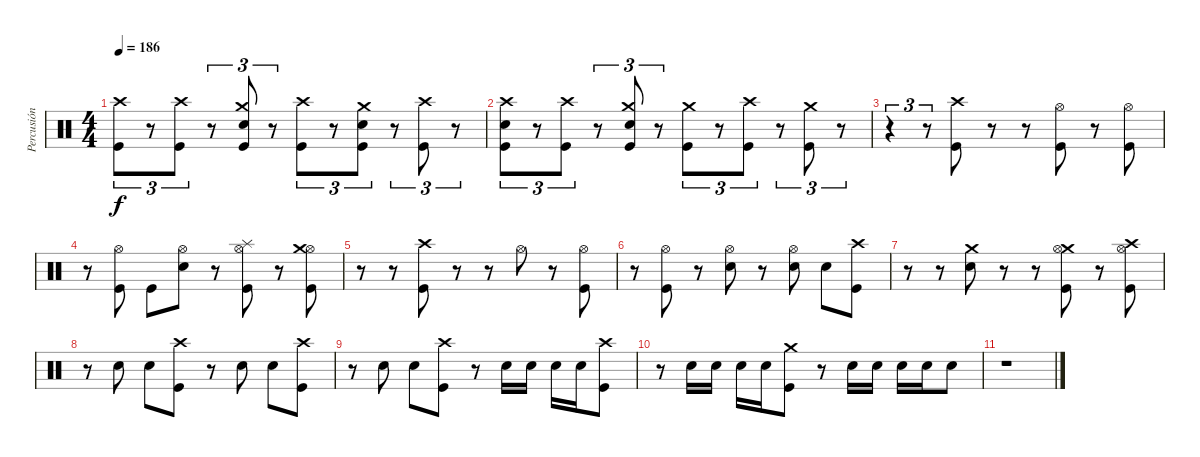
\track ("Percusión" "Percusión") {instrument percussion}
\staff {score}
\articulation defaults
\ts (4 4)
\tempo 186
\clef neutral
\ks c
("Crash high (hit)" "Kick (hit)").8{tu (3 2) dy f} r.8{tu (3 2)} ("Crash high (hit)" "Kick (hit)").8{tu (3 2)} r.8{tu (3 2)} ("Crash medium (hit)" "Snare (hit) 2" "Kick (hit)").8{tu (3 2)} r.8{tu (3 2)} ("Crash high (hit)" "Kick (hit)").8{tu (3 2)} r.8{tu (3 2)} ("Crash medium (hit)" "Snare (hit) 2" "Kick (hit)").8{tu (3 2)} r.8{tu (3 2)} ("Crash high (hit)" "Kick (hit)").8{tu (3 2)} r.8{tu (3 2)} |
("Crash high (hit)" "Snare (hit) 2" "Kick (hit)").8{tu (3 2)} r.8{tu (3 2)} ("Crash high (hit)" "Kick (hit)").8{tu (3 2)} r.8{tu (3 2)} ("Crash medium (hit)" "Snare (hit) 2" "Kick (hit)").8{tu (3 2)} r.8{tu (3 2)} ("Crash medium (hit)" "Kick (hit)").8{tu (3 2)} r.8{tu (3 2)} ("Crash high (hit)" "Kick (hit)").8{tu (3 2)} r.8{tu (3 2)} ("Crash medium (hit)" "Kick (hit)").8{tu (3 2)} r.8{tu (3 2)} |
r.4{tu (3 2)} r.8{tu (3 2)} ("Crash high (hit)" "Kick (hit)").8 r.8 r.8 ("Hi-Hat (open)" "Kick (hit)").8 r.8 ("Hi-Hat (open)" "Kick (hit)").8 |
r.8 ("Hi-Hat (open)" "Kick (hit)").8 "Kick (hit)".8 ("Hi-Hat (open)" "Snare (hit) 2").8 r.8 ("Hi-Hat (open)" "Splash (hit)" "Kick (hit)").8 r.8 ("Hi-Hat (open)" "Crash medium (hit)" "Kick (hit)").8 |
r.8 r.8 ("Crash high (hit)" "Kick (hit)").8 r.8 r.8 "Hi-Hat (open)".8 r.8 ("Hi-Hat (open)" "Kick (hit)").8 |
r.8 ("Hi-Hat (open)" "Kick (hit)").8 r.8 ("Hi-Hat (open)" "Snare (hit) 2").8 r.8 ("Hi-Hat (open)" "Snare (hit) 2").8 "Snare (hit) 2".8 ("Crash high (hit)" "Kick (hit)").8 |
r.8 r.8 ("Crash medium (hit)" "Snare (hit) 2").8 r.8 r.8 ("Crash medium (hit)" "Hi-Hat (open)" "Kick (hit)").8 r.8 ("Crash high (hit)" "Hi-Hat (open)" "Kick (hit)").8 |
r.8 "Snare (hit) 2".8 "Snare (hit) 2".8 ("Crash high (hit)" "Kick (hit)").8 r.8 "Snare (hit) 2".8 "Snare (hit) 2".8 ("Crash high (hit)" "Kick (hit)").8 |
r.8 "Snare (hit) 2".8 "Snare (hit) 2".8 ("Crash high (hit)" "Kick (hit)").8 r.8 "Snare (hit) 2".16 "Snare (hit) 2".16 "Snare (hit) 2".16 "Snare (hit) 2".16 ("Crash high (hit)" "Kick (hit)").8 |
r.8 "Snare (hit) 2".16 "Snare (hit) 2".16 "Snare (hit) 2".16 "Snare (hit) 2".16 ("Crash medium (hit)" "Kick (hit)").8 r.8 "Snare (hit) 2".16 "Snare (hit) 2".16 "Snare (hit) 2".16 "Snare (hit) 2".16 "Snare (hit) 2".8 |
r.1
